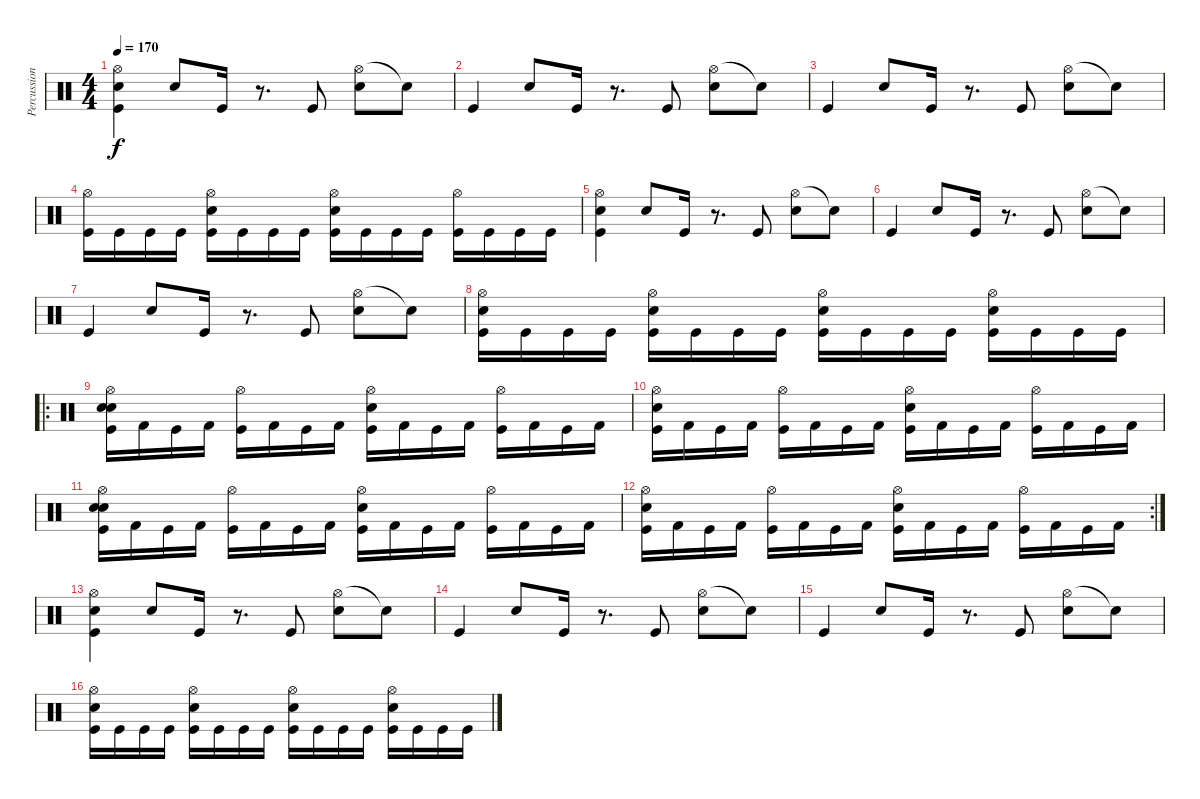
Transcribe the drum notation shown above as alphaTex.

\track ("Percussions" "Percussion") {instrument percussion}
\staff {score}
\articulation defaults
\ts (4 4)
\tempo 170
\clef neutral
\ks c
("Hi-Hat (open)" "Snare (hit) 2" "Kick (hit)").4{dy f} "Electric Snare (hit)".8 "Kick (hit)".16 r.8{d} "Kick (hit)".8 ("Hi-Hat (open)" "Electric Snare (hit)").8 "Snare (hit)"{t}.8 |
"Kick (hit)".4 "Electric Snare (hit)".8 "Kick (hit)".16 r.8{d} "Kick (hit)".8 ("Hi-Hat (open)" "Electric Snare (hit)").8 "Snare (hit)"{t}.8 |
"Kick (hit)".4 "Electric Snare (hit)".8 "Kick (hit)".16 r.8{d} "Kick (hit)".8 ("Hi-Hat (open)" "Electric Snare (hit)").8 "Snare (hit)"{t}.8 |
("Hi-Hat (open)" "Kick (hit)").16 "Kick (hit)".16 "Kick (hit)".16 "Kick (hit)".16 ("Hi-Hat (open)" "Electric Snare (hit)" "Kick (hit)").16 "Kick (hit)".16 "Kick (hit)".16 "Kick (hit)".16 ("Hi-Hat (open)" "Electric Snare (hit)" "Kick (hit)").16 "Kick (hit)".16 "Kick (hit)".16 "Kick (hit)".16 ("Hi-Hat (open)" "Kick (hit)").16 "Kick (hit)".16 "Kick (hit)".16 "Kick (hit)".16 |
("Hi-Hat (open)" "Snare (hit) 2" "Kick (hit)").4 "Electric Snare (hit)".8 "Kick (hit)".16 r.8{d} "Kick (hit)".8 ("Hi-Hat (open)" "Electric Snare (hit)").8 "Snare (hit)"{t}.8 |
"Kick (hit)".4 "Electric Snare (hit)".8 "Kick (hit)".16 r.8{d} "Kick (hit)".8 ("Hi-Hat (open)" "Electric Snare (hit)").8 "Snare (hit)"{t}.8 |
"Kick (hit)".4 "Electric Snare (hit)".8 "Kick (hit)".16 r.8{d} "Kick (hit)".8 ("Hi-Hat (open)" "Electric Snare (hit)").8 "Snare (hit)"{t}.8 |
("Hi-Hat (open)" "Electric Snare (hit)" "Kick (hit)").16 "Kick (hit)".16 "Kick (hit)".16 "Kick (hit)".16 ("Hi-Hat (open)" "Electric Snare (hit)" "Kick (hit)").16 "Kick (hit)".16 "Kick (hit)".16 "Kick (hit)".16 ("Hi-Hat (open)" "Electric Snare (hit)" "Kick (hit)").16 "Kick (hit)".16 "Kick (hit)".16 "Kick (hit)".16 ("Hi-Hat (open)" "Electric Snare (hit)" "Kick (hit)").16 "Kick (hit)".16 "Kick (hit)".16 "Kick (hit)".16 |
\ro
("Hi-Hat (open)" "Electric Snare (hit)" "Snare (hit) 2" "Kick (hit)").16 "Kick (hit) 2".16 "Kick (hit)".16 "Kick (hit) 2".16 ("Hi-Hat (open)" "Kick (hit)").16 "Kick (hit) 2".16 "Kick (hit)".16 "Kick (hit) 2".16 ("Hi-Hat (open)" "Electric Snare (hit)" "Kick (hit)").16 "Kick (hit) 2".16 "Kick (hit)".16 "Kick (hit) 2".16 ("Hi-Hat (open)" "Kick (hit)").16 "Kick (hit) 2".16 "Kick (hit)".16 "Kick (hit) 2".16 |
("Hi-Hat (open)" "Electric Snare (hit)" "Kick (hit)").16 "Kick (hit) 2".16 "Kick (hit)".16 "Kick (hit) 2".16 ("Hi-Hat (open)" "Kick (hit)").16 "Kick (hit) 2".16 "Kick (hit)".16 "Kick (hit) 2".16 ("Hi-Hat (open)" "Electric Snare (hit)" "Kick (hit)").16 "Kick (hit) 2".16 "Kick (hit)".16 "Kick (hit) 2".16 ("Hi-Hat (open)" "Kick (hit)").16 "Kick (hit) 2".16 "Kick (hit)".16 "Kick (hit) 2".16 |
("Hi-Hat (open)" "Electric Snare (hit)" "Snare (hit) 2" "Kick (hit)").16 "Kick (hit) 2".16 "Kick (hit)".16 "Kick (hit) 2".16 ("Hi-Hat (open)" "Kick (hit)").16 "Kick (hit) 2".16 "Kick (hit)".16 "Kick (hit) 2".16 ("Hi-Hat (open)" "Electric Snare (hit)" "Kick (hit)").16 "Kick (hit) 2".16 "Kick (hit)".16 "Kick (hit) 2".16 ("Hi-Hat (open)" "Kick (hit)").16 "Kick (hit) 2".16 "Kick (hit)".16 "Kick (hit) 2".16 |
\rc 2
("Hi-Hat (open)" "Electric Snare (hit)" "Kick (hit)").16 "Kick (hit) 2".16 "Kick (hit)".16 "Kick (hit) 2".16 ("Hi-Hat (open)" "Kick (hit)").16 "Kick (hit) 2".16 "Kick (hit)".16 "Kick (hit) 2".16 ("Hi-Hat (open)" "Electric Snare (hit)" "Kick (hit)").16 "Kick (hit) 2".16 "Kick (hit)".16 "Kick (hit) 2".16 ("Hi-Hat (open)" "Kick (hit)").16 "Kick (hit) 2".16 "Kick (hit)".16 "Kick (hit) 2".16 |
("Hi-Hat (open)" "Snare (hit) 2" "Kick (hit)").4 "Electric Snare (hit)".8 "Kick (hit)".16 r.8{d} "Kick (hit)".8 ("Hi-Hat (open)" "Electric Snare (hit)").8 "Snare (hit)"{t}.8 |
"Kick (hit)".4 "Electric Snare (hit)".8 "Kick (hit)".16 r.8{d} "Kick (hit)".8 ("Hi-Hat (open)" "Electric Snare (hit)").8 "Snare (hit)"{t}.8 |
"Kick (hit)".4 "Electric Snare (hit)".8 "Kick (hit)".16 r.8{d} "Kick (hit)".8 ("Hi-Hat (open)" "Electric Snare (hit)").8 "Snare (hit)"{t}.8 |
("Hi-Hat (open)" "Electric Snare (hit)" "Kick (hit)").16 "Kick (hit)".16 "Kick (hit)".16 "Kick (hit)".16 ("Hi-Hat (open)" "Electric Snare (hit)" "Kick (hit)").16 "Kick (hit)".16 "Kick (hit)".16 "Kick (hit)".16 ("Hi-Hat (open)" "Electric Snare (hit)" "Kick (hit)").16 "Kick (hit)".16 "Kick (hit)".16 "Kick (hit)".16 ("Hi-Hat (open)" "Electric Snare (hit)" "Kick (hit)").16 "Kick (hit)".16 "Kick (hit)".16 "Kick (hit)".16
